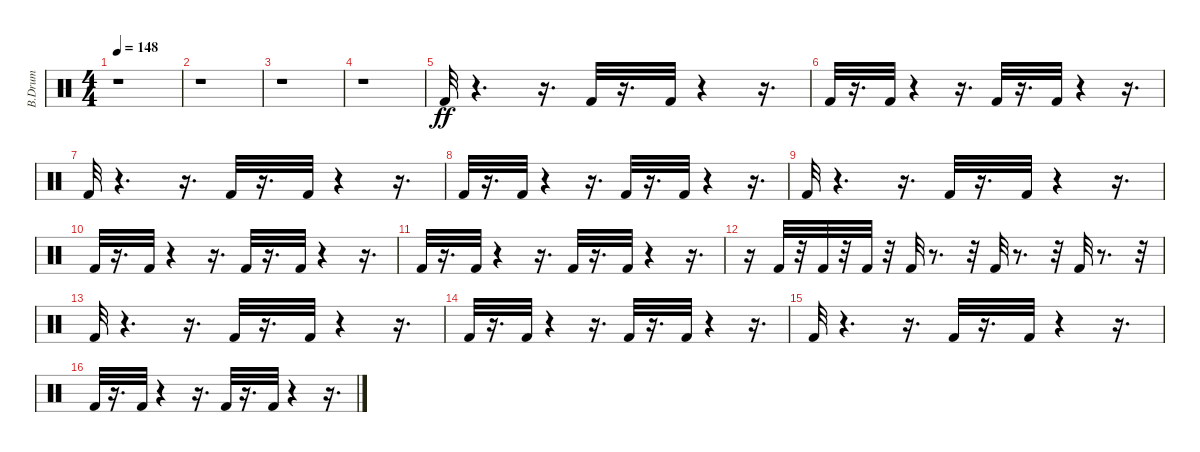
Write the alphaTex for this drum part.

\track ("B.Drum                              " "B.Drum    ") {instrument percussion}
\staff {score}
\articulation defaults
\ts (4 4)
\tempo 148
\clef neutral
\ks c
r.1{dy ff} |
r.1 |
r.1 |
r.1 |
"Kick (hit) 2".32 r.4{d} r.16{d} "Kick (hit) 2".32 r.16{d} "Kick (hit) 2".32 r.4 r.16{d} |
"Kick (hit) 2".32 r.16{d} "Kick (hit) 2".32 r.4 r.16{d} "Kick (hit) 2".32 r.16{d} "Kick (hit) 2".32 r.4 r.16{d} |
"Kick (hit) 2".32 r.4{d} r.16{d} "Kick (hit) 2".32 r.16{d} "Kick (hit) 2".32 r.4 r.16{d} |
"Kick (hit) 2".32 r.16{d} "Kick (hit) 2".32 r.4 r.16{d} "Kick (hit) 2".32 r.16{d} "Kick (hit) 2".32 r.4 r.16{d} |
"Kick (hit) 2".32 r.4{d} r.16{d} "Kick (hit) 2".32 r.16{d} "Kick (hit) 2".32 r.4 r.16{d} |
"Kick (hit) 2".32 r.16{d} "Kick (hit) 2".32 r.4 r.16{d} "Kick (hit) 2".32 r.16{d} "Kick (hit) 2".32 r.4 r.16{d} |
"Kick (hit) 2".32 r.16{d} "Kick (hit) 2".32 r.4 r.16{d} "Kick (hit) 2".32 r.16{d} "Kick (hit) 2".32 r.4 r.16{d} |
r.16 "Kick (hit) 2".32 r.32 "Kick (hit) 2".32 r.32 "Kick (hit) 2".32 r.32 "Kick (hit) 2".32 r.8{d} r.32 "Kick (hit) 2".32 r.8{d} r.32 "Kick (hit) 2".32 r.8{d} r.32 |
"Kick (hit) 2".32 r.4{d} r.16{d} "Kick (hit) 2".32 r.16{d} "Kick (hit) 2".32 r.4 r.16{d} |
"Kick (hit) 2".32 r.16{d} "Kick (hit) 2".32 r.4 r.16{d} "Kick (hit) 2".32 r.16{d} "Kick (hit) 2".32 r.4 r.16{d} |
"Kick (hit) 2".32 r.4{d} r.16{d} "Kick (hit) 2".32 r.16{d} "Kick (hit) 2".32 r.4 r.16{d} |
"Kick (hit) 2".32 r.16{d} "Kick (hit) 2".32 r.4 r.16{d} "Kick (hit) 2".32 r.16{d} "Kick (hit) 2".32 r.4 r.16{d}
